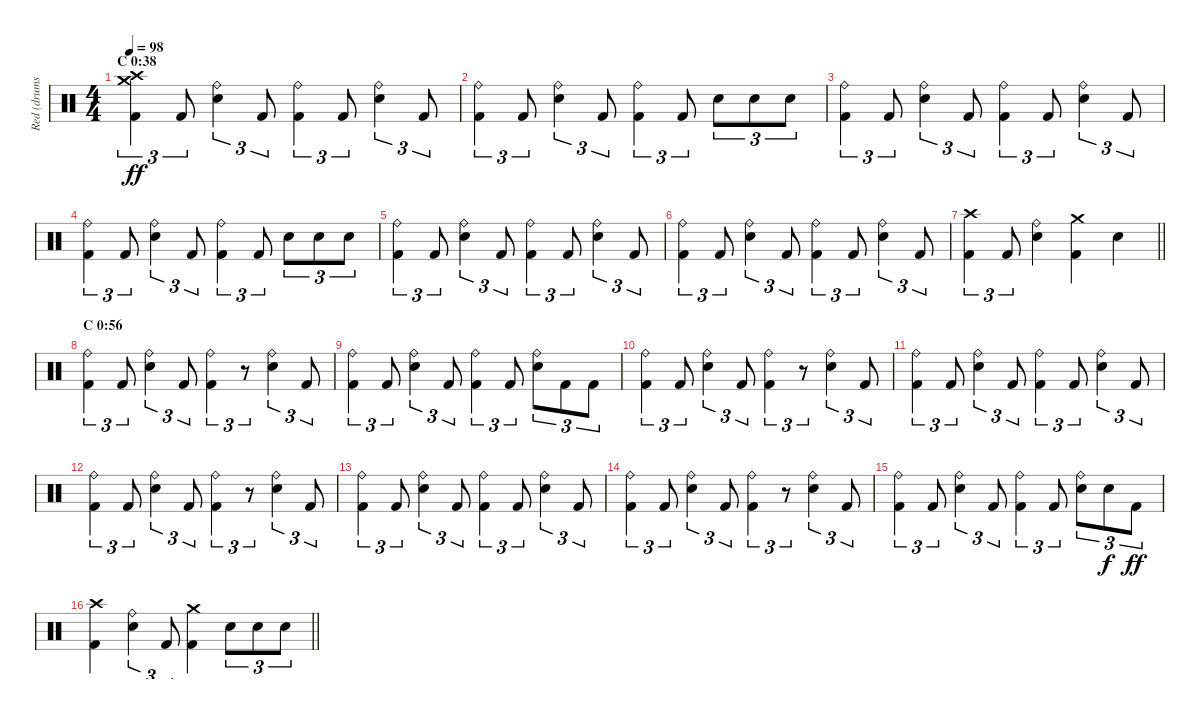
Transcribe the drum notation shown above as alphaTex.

\track ("Red (drums)" "Red (drums") {instrument percussion}
\staff {score}
\articulation defaults
\ts (4 4)
\section ("" "C 0:38")
\tempo 98
\clef neutral
\ks c
("Crash medium (hit)" "Crash high (hit)" "Kick (hit) 2").4{tu (3 2) dy ff} "Kick (hit) 2".8{tu (3 2)} ("Ride (bell)" "Electric Snare (hit)").4{tu (3 2)} "Kick (hit) 2".8{tu (3 2)} ("Ride (bell)" "Kick (hit) 2").4{tu (3 2)} "Kick (hit) 2".8{tu (3 2)} ("Ride (bell)" "Electric Snare (hit)").4{tu (3 2)} "Kick (hit) 2".8{tu (3 2)} |
("Ride (bell)" "Kick (hit) 2").4{tu (3 2)} "Kick (hit) 2".8{tu (3 2)} ("Ride (bell)" "Electric Snare (hit)").4{tu (3 2)} "Kick (hit) 2".8{tu (3 2)} ("Ride (bell)" "Kick (hit) 2").4{tu (3 2)} "Kick (hit) 2".8{tu (3 2)} "Electric Snare (hit)".8{tu (3 2)} "Electric Snare (hit)".8{tu (3 2)} "Electric Snare (hit)".8{tu (3 2)} |
("Ride (bell)" "Kick (hit) 2").4{tu (3 2)} "Kick (hit) 2".8{tu (3 2)} ("Ride (bell)" "Electric Snare (hit)").4{tu (3 2)} "Kick (hit) 2".8{tu (3 2)} ("Ride (bell)" "Kick (hit) 2").4{tu (3 2)} "Kick (hit) 2".8{tu (3 2)} ("Ride (bell)" "Electric Snare (hit)").4{tu (3 2)} "Kick (hit) 2".8{tu (3 2)} |
("Ride (bell)" "Kick (hit) 2").4{tu (3 2)} "Kick (hit) 2".8{tu (3 2)} ("Ride (bell)" "Electric Snare (hit)").4{tu (3 2)} "Kick (hit) 2".8{tu (3 2)} ("Ride (bell)" "Kick (hit) 2").4{tu (3 2)} "Kick (hit) 2".8{tu (3 2)} "Electric Snare (hit)".8{tu (3 2)} "Electric Snare (hit)".8{tu (3 2)} "Electric Snare (hit)".8{tu (3 2)} |
("Ride (bell)" "Kick (hit) 2").4{tu (3 2)} "Kick (hit) 2".8{tu (3 2)} ("Ride (bell)" "Electric Snare (hit)").4{tu (3 2)} "Kick (hit) 2".8{tu (3 2)} ("Ride (bell)" "Kick (hit) 2").4{tu (3 2)} "Kick (hit) 2".8{tu (3 2)} ("Ride (bell)" "Electric Snare (hit)").4{tu (3 2)} "Kick (hit) 2".8{tu (3 2)} |
("Ride (bell)" "Kick (hit) 2").4{tu (3 2)} "Kick (hit) 2".8{tu (3 2)} ("Ride (bell)" "Electric Snare (hit)").4{tu (3 2)} "Kick (hit) 2".8{tu (3 2)} ("Ride (bell)" "Kick (hit) 2").4{tu (3 2)} "Kick (hit) 2".8{tu (3 2)} ("Ride (bell)" "Electric Snare (hit)").4{tu (3 2)} "Kick (hit) 2".8{tu (3 2)} |
\barLineRight lightlight
("Crash high (hit)" "Kick (hit) 2").4{tu (3 2)} "Kick (hit) 2".8{tu (3 2)} ("Ride (bell)" "Electric Snare (hit)").4 ("Crash medium (hit)" "Kick (hit) 2").4 "Electric Snare (hit)".4 |
\section ("" "C 0:56")
("Ride (bell)" "Kick (hit) 2").4{tu (3 2)} "Kick (hit) 2".8{tu (3 2)} ("Ride (bell)" "Electric Snare (hit)").4{tu (3 2)} "Kick (hit) 2".8{tu (3 2)} ("Ride (bell)" "Kick (hit) 2").4{tu (3 2)} r.8{tu (3 2)} ("Ride (bell)" "Electric Snare (hit)").4{tu (3 2)} "Kick (hit) 2".8{tu (3 2)} |
("Ride (bell)" "Kick (hit) 2").4{tu (3 2)} "Kick (hit) 2".8{tu (3 2)} ("Ride (bell)" "Electric Snare (hit)").4{tu (3 2)} "Kick (hit) 2".8{tu (3 2)} ("Ride (bell)" "Kick (hit) 2").4{tu (3 2)} "Kick (hit) 2".8{tu (3 2)} ("Ride (bell)" "Electric Snare (hit)").8{tu (3 2)} "Kick (hit) 2".8{tu (3 2)} "Kick (hit) 2".8{tu (3 2)} |
("Ride (bell)" "Kick (hit) 2").4{tu (3 2)} "Kick (hit) 2".8{tu (3 2)} ("Ride (bell)" "Electric Snare (hit)").4{tu (3 2)} "Kick (hit) 2".8{tu (3 2)} ("Ride (bell)" "Kick (hit) 2").4{tu (3 2)} r.8{tu (3 2)} ("Ride (bell)" "Electric Snare (hit)").4{tu (3 2)} "Kick (hit) 2".8{tu (3 2)} |
("Ride (bell)" "Kick (hit) 2").4{tu (3 2)} "Kick (hit) 2".8{tu (3 2)} ("Ride (bell)" "Electric Snare (hit)").4{tu (3 2)} "Kick (hit) 2".8{tu (3 2)} ("Ride (bell)" "Kick (hit) 2").4{tu (3 2)} "Kick (hit) 2".8{tu (3 2)} ("Ride (bell)" "Electric Snare (hit)").4{tu (3 2)} "Kick (hit) 2".8{tu (3 2)} |
("Ride (bell)" "Kick (hit) 2").4{tu (3 2)} "Kick (hit) 2".8{tu (3 2)} ("Ride (bell)" "Electric Snare (hit)").4{tu (3 2)} "Kick (hit) 2".8{tu (3 2)} ("Ride (bell)" "Kick (hit) 2").4{tu (3 2)} r.8{tu (3 2)} ("Ride (bell)" "Electric Snare (hit)").4{tu (3 2)} "Kick (hit) 2".8{tu (3 2)} |
("Ride (bell)" "Kick (hit) 2").4{tu (3 2)} "Kick (hit) 2".8{tu (3 2)} ("Ride (bell)" "Electric Snare (hit)").4{tu (3 2)} "Kick (hit) 2".8{tu (3 2)} ("Ride (bell)" "Kick (hit) 2").4{tu (3 2)} "Kick (hit) 2".8{tu (3 2)} ("Ride (bell)" "Electric Snare (hit)").4{tu (3 2)} "Kick (hit) 2".8{tu (3 2)} |
("Ride (bell)" "Kick (hit) 2").4{tu (3 2)} "Kick (hit) 2".8{tu (3 2)} ("Ride (bell)" "Electric Snare (hit)").4{tu (3 2)} "Kick (hit) 2".8{tu (3 2)} ("Ride (bell)" "Kick (hit) 2").4{tu (3 2)} r.8{tu (3 2)} ("Ride (bell)" "Electric Snare (hit)").4{tu (3 2)} "Kick (hit) 2".8{tu (3 2)} |
("Ride (bell)" "Kick (hit) 2").4{tu (3 2)} "Kick (hit) 2".8{tu (3 2)} ("Ride (bell)" "Electric Snare (hit)").4{tu (3 2)} "Kick (hit) 2".8{tu (3 2)} ("Ride (bell)" "Kick (hit) 2").4{tu (3 2)} "Kick (hit) 2".8{tu (3 2)} ("Ride (bell)" "Electric Snare (hit)").8{tu (3 2)} "Electric Snare (hit)".8{tu (3 2) dy f} "Kick (hit) 2".8{tu (3 2) dy ff} |
\barLineRight lightlight
("Crash high (hit)" "Kick (hit) 2").4 ("Ride (bell)" "Electric Snare (hit)").4{tu (3 2)} "Kick (hit) 2".8{tu (3 2)} ("Crash medium (hit)" "Kick (hit) 2").4 "Electric Snare (hit)".8{tu (3 2)} "Electric Snare (hit)".8{tu (3 2)} "Electric Snare (hit)".8{tu (3 2)}
